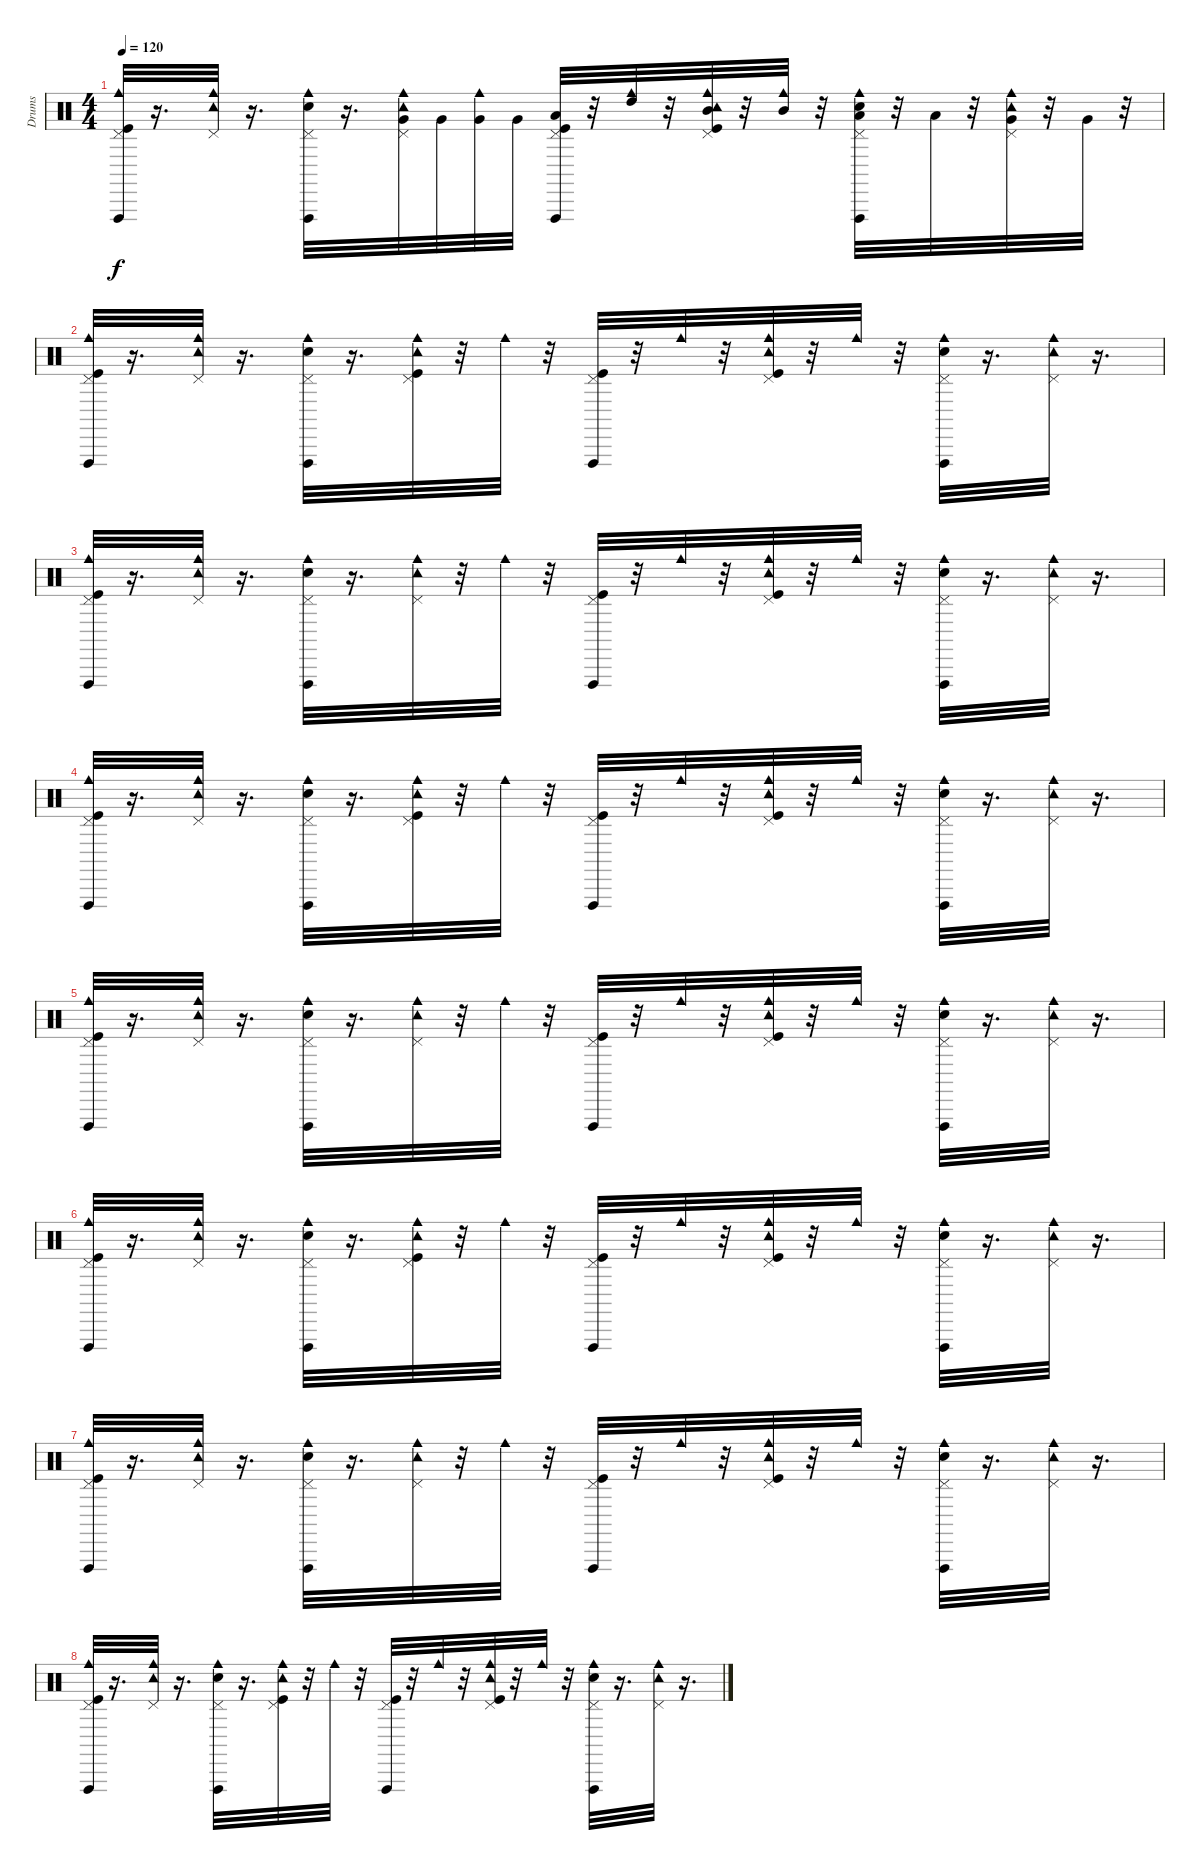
\track ("Drums" "Drums") {instrument percussion}
\staff {score}
\articulation defaults
\ts (4 4)
\tempo 120
\clef neutral
\ks c
("Cowbell medium (hit)" "Pedal Hi-Hat (hit)" "Kick (hit)" "Vibraslap (hit)").32{dy f} r.16{d} ("Pedal Hi-Hat (hit)" "Cowbell medium (hit)" "Tambourine (hit)").32 r.16{d} ("Pedal Hi-Hat (hit)" "Cowbell medium (hit)" "Snare (hit) 2" "Vibraslap (hit)").32 r.16{d} ("Cowbell medium (hit)" "Pedal Hi-Hat (hit)" "Tambourine (hit)" "Very Low Tom (hit)").32 "Very Low Tom (hit)".32 ("Cowbell medium (hit)" "Very Low Tom (hit)").32 "Very Low Tom (hit)".32 ("Low Tom (hit)" "Kick (hit)" "Pedal Hi-Hat (hit)" "Vibraslap (hit)").32 r.32 ("High Tom (hit)" "Cowbell medium (hit)").32 r.32 ("Tambourine (hit)" "Pedal Hi-Hat (hit)" "Mid Tom (hit)" "Kick (hit)" "Cowbell medium (hit)").32 r.32 ("Mid Tom (hit)" "Cowbell medium (hit)").32 r.32 ("Low Tom (hit)" "Snare (hit) 2" "Pedal Hi-Hat (hit)" "Cowbell medium (hit)" "Vibraslap (hit)").32 r.32 "Low Tom (hit)".32 r.32 ("Very Low Tom (hit)" "Pedal Hi-Hat (hit)" "Tambourine (hit)" "Cowbell medium (hit)").32 r.32 "Very Low Tom (hit)".32 r.32 |
("Kick (hit)" "Pedal Hi-Hat (hit)" "Vibraslap (hit)" "Cowbell medium (hit)").32 r.16{d} ("Cowbell medium (hit)" "Pedal Hi-Hat (hit)" "Tambourine (hit)").32 r.16{d} ("Snare (hit) 2" "Pedal Hi-Hat (hit)" "Cowbell medium (hit)" "Vibraslap (hit)").32 r.16{d} ("Kick (hit)" "Cowbell medium (hit)" "Pedal Hi-Hat (hit)" "Tambourine (hit)").32 r.32 "Cowbell medium (hit)".32 r.32 ("Kick (hit)" "Vibraslap (hit)" "Pedal Hi-Hat (hit)").32 r.32 "Cowbell medium (hit)".32 r.32 ("Kick (hit)" "Pedal Hi-Hat (hit)" "Tambourine (hit)" "Cowbell medium (hit)").32 r.32 "Cowbell medium (hit)".32 r.32 ("Snare (hit) 2" "Pedal Hi-Hat (hit)" "Cowbell medium (hit)" "Vibraslap (hit)").32 r.16{d} ("Pedal Hi-Hat (hit)" "Cowbell medium (hit)" "Tambourine (hit)").32 r.16{d} |
("Kick (hit)" "Vibraslap (hit)" "Cowbell medium (hit)" "Pedal Hi-Hat (hit)").32 r.16{d} ("Tambourine (hit)" "Pedal Hi-Hat (hit)" "Cowbell medium (hit)").32 r.16{d} ("Snare (hit) 2" "Pedal Hi-Hat (hit)" "Vibraslap (hit)" "Cowbell medium (hit)").32 r.16{d} ("Pedal Hi-Hat (hit)" "Tambourine (hit)" "Cowbell medium (hit)").32 r.32 "Cowbell medium (hit)".32 r.32 ("Kick (hit)" "Pedal Hi-Hat (hit)" "Vibraslap (hit)").32 r.32 "Cowbell medium (hit)".32 r.32 ("Kick (hit)" "Cowbell medium (hit)" "Tambourine (hit)" "Pedal Hi-Hat (hit)").32 r.32 "Cowbell medium (hit)".32 r.32 ("Snare (hit) 2" "Vibraslap (hit)" "Cowbell medium (hit)" "Pedal Hi-Hat (hit)").32 r.16{d} ("Pedal Hi-Hat (hit)" "Tambourine (hit)" "Cowbell medium (hit)").32 r.16{d} |
("Kick (hit)" "Pedal Hi-Hat (hit)" "Vibraslap (hit)" "Cowbell medium (hit)").32 r.16{d} ("Cowbell medium (hit)" "Pedal Hi-Hat (hit)" "Tambourine (hit)").32 r.16{d} ("Snare (hit) 2" "Pedal Hi-Hat (hit)" "Cowbell medium (hit)" "Vibraslap (hit)").32 r.16{d} ("Kick (hit)" "Cowbell medium (hit)" "Pedal Hi-Hat (hit)" "Tambourine (hit)").32 r.32 "Cowbell medium (hit)".32 r.32 ("Kick (hit)" "Vibraslap (hit)" "Pedal Hi-Hat (hit)").32 r.32 "Cowbell medium (hit)".32 r.32 ("Kick (hit)" "Pedal Hi-Hat (hit)" "Tambourine (hit)" "Cowbell medium (hit)").32 r.32 "Cowbell medium (hit)".32 r.32 ("Snare (hit) 2" "Pedal Hi-Hat (hit)" "Cowbell medium (hit)" "Vibraslap (hit)").32 r.16{d} ("Pedal Hi-Hat (hit)" "Cowbell medium (hit)" "Tambourine (hit)").32 r.16{d} |
("Kick (hit)" "Vibraslap (hit)" "Cowbell medium (hit)" "Pedal Hi-Hat (hit)").32 r.16{d} ("Tambourine (hit)" "Pedal Hi-Hat (hit)" "Cowbell medium (hit)").32 r.16{d} ("Snare (hit) 2" "Pedal Hi-Hat (hit)" "Vibraslap (hit)" "Cowbell medium (hit)").32 r.16{d} ("Pedal Hi-Hat (hit)" "Tambourine (hit)" "Cowbell medium (hit)").32 r.32 "Cowbell medium (hit)".32 r.32 ("Kick (hit)" "Pedal Hi-Hat (hit)" "Vibraslap (hit)").32 r.32 "Cowbell medium (hit)".32 r.32 ("Kick (hit)" "Cowbell medium (hit)" "Tambourine (hit)" "Pedal Hi-Hat (hit)").32 r.32 "Cowbell medium (hit)".32 r.32 ("Snare (hit) 2" "Vibraslap (hit)" "Cowbell medium (hit)" "Pedal Hi-Hat (hit)").32 r.16{d} ("Pedal Hi-Hat (hit)" "Tambourine (hit)" "Cowbell medium (hit)").32 r.16{d} |
("Kick (hit)" "Pedal Hi-Hat (hit)" "Vibraslap (hit)" "Cowbell medium (hit)").32 r.16{d} ("Cowbell medium (hit)" "Pedal Hi-Hat (hit)" "Tambourine (hit)").32 r.16{d} ("Snare (hit) 2" "Pedal Hi-Hat (hit)" "Cowbell medium (hit)" "Vibraslap (hit)").32 r.16{d} ("Kick (hit)" "Cowbell medium (hit)" "Pedal Hi-Hat (hit)" "Tambourine (hit)").32 r.32 "Cowbell medium (hit)".32 r.32 ("Kick (hit)" "Vibraslap (hit)" "Pedal Hi-Hat (hit)").32 r.32 "Cowbell medium (hit)".32 r.32 ("Kick (hit)" "Pedal Hi-Hat (hit)" "Tambourine (hit)" "Cowbell medium (hit)").32 r.32 "Cowbell medium (hit)".32 r.32 ("Snare (hit) 2" "Pedal Hi-Hat (hit)" "Cowbell medium (hit)" "Vibraslap (hit)").32 r.16{d} ("Pedal Hi-Hat (hit)" "Cowbell medium (hit)" "Tambourine (hit)").32 r.16{d} |
("Kick (hit)" "Vibraslap (hit)" "Cowbell medium (hit)" "Pedal Hi-Hat (hit)").32 r.16{d} ("Tambourine (hit)" "Pedal Hi-Hat (hit)" "Cowbell medium (hit)").32 r.16{d} ("Snare (hit) 2" "Pedal Hi-Hat (hit)" "Vibraslap (hit)" "Cowbell medium (hit)").32 r.16{d} ("Pedal Hi-Hat (hit)" "Tambourine (hit)" "Cowbell medium (hit)").32 r.32 "Cowbell medium (hit)".32 r.32 ("Kick (hit)" "Pedal Hi-Hat (hit)" "Vibraslap (hit)").32 r.32 "Cowbell medium (hit)".32 r.32 ("Kick (hit)" "Cowbell medium (hit)" "Tambourine (hit)" "Pedal Hi-Hat (hit)").32 r.32 "Cowbell medium (hit)".32 r.32 ("Snare (hit) 2" "Vibraslap (hit)" "Cowbell medium (hit)" "Pedal Hi-Hat (hit)").32 r.16{d} ("Pedal Hi-Hat (hit)" "Tambourine (hit)" "Cowbell medium (hit)").32 r.16{d} |
("Kick (hit)" "Pedal Hi-Hat (hit)" "Vibraslap (hit)" "Cowbell medium (hit)").32 r.16{d} ("Cowbell medium (hit)" "Pedal Hi-Hat (hit)" "Tambourine (hit)").32 r.16{d} ("Snare (hit) 2" "Pedal Hi-Hat (hit)" "Cowbell medium (hit)" "Vibraslap (hit)").32 r.16{d} ("Kick (hit)" "Cowbell medium (hit)" "Pedal Hi-Hat (hit)" "Tambourine (hit)").32 r.32 "Cowbell medium (hit)".32 r.32 ("Kick (hit)" "Vibraslap (hit)" "Pedal Hi-Hat (hit)").32 r.32 "Cowbell medium (hit)".32 r.32 ("Kick (hit)" "Pedal Hi-Hat (hit)" "Tambourine (hit)" "Cowbell medium (hit)").32 r.32 "Cowbell medium (hit)".32 r.32 ("Snare (hit) 2" "Pedal Hi-Hat (hit)" "Cowbell medium (hit)" "Vibraslap (hit)").32 r.16{d} ("Pedal Hi-Hat (hit)" "Cowbell medium (hit)" "Tambourine (hit)").32 r.16{d}
